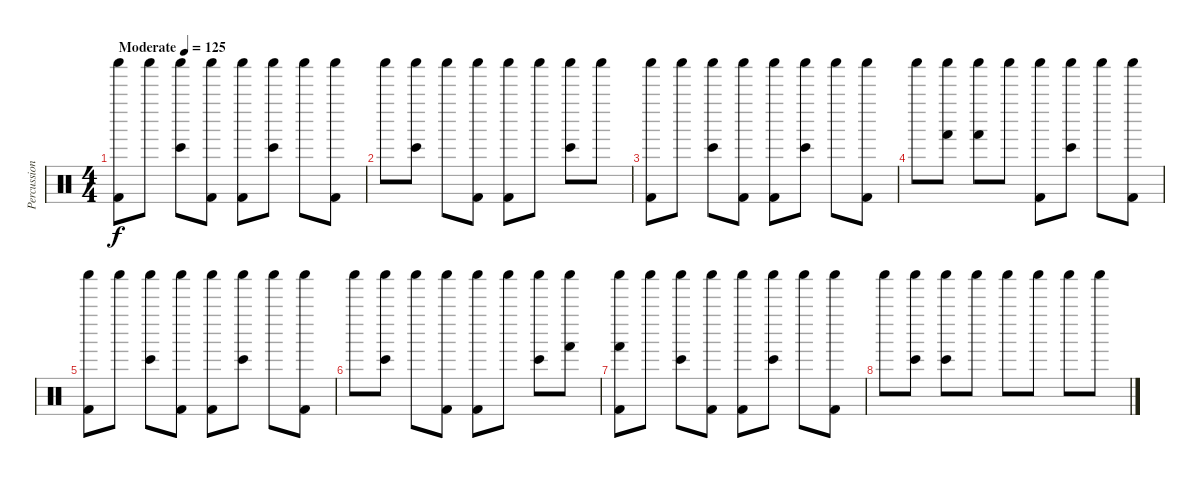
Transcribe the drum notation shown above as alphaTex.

\track ("Percussion" "Percussion") {instrument percussion}
\staff {score}
\articulation defaults
\ts (4 4)
\tempo (125 "Moderate")
\clef neutral
\ks c
("Shaker (hit)" "Kick (hit) 2").8{dy f} "Shaker (hit)".8 ("Shaker (hit)" "Bongo High (hit)").8 ("Shaker (hit)" "Kick (hit) 2").8 ("Shaker (hit)" "Kick (hit) 2").8 ("Shaker (hit)" "Bongo High (hit)").8 "Shaker (hit)".8 ("Shaker (hit)" "Kick (hit) 2").8 |
"Shaker (hit)".8 ("Shaker (hit)" "Bongo High (hit)").8 "Shaker (hit)".8 ("Shaker (hit)" "Kick (hit) 2").8 ("Shaker (hit)" "Kick (hit) 2").8 "Shaker (hit)".8 ("Shaker (hit)" "Bongo High (hit)").8 "Shaker (hit)".8 |
("Shaker (hit)" "Kick (hit) 2").8 "Shaker (hit)".8 ("Shaker (hit)" "Bongo High (hit)").8 ("Shaker (hit)" "Kick (hit) 2").8 ("Shaker (hit)" "Kick (hit) 2").8 ("Shaker (hit)" "Bongo High (hit)").8 "Shaker (hit)".8 ("Shaker (hit)" "Kick (hit) 2").8 |
"Shaker (hit)".8 ("Shaker (hit)" "Hand (hit)").8 ("Shaker (hit)" "Hand (hit)").8 "Shaker (hit)".8 ("Shaker (hit)" "Kick (hit) 2").8 ("Shaker (hit)" "Bongo High (hit)").8 "Shaker (hit)".8 ("Shaker (hit)" "Kick (hit) 2").8 |
("Shaker (hit)" "Kick (hit) 2").8 "Shaker (hit)".8 ("Shaker (hit)" "Bongo High (hit)").8 ("Shaker (hit)" "Kick (hit) 2").8 ("Shaker (hit)" "Kick (hit) 2").8 ("Shaker (hit)" "Bongo High (hit)").8 "Shaker (hit)".8 ("Shaker (hit)" "Kick (hit) 2").8 |
"Shaker (hit)".8 ("Shaker (hit)" "Bongo High (hit)").8 "Shaker (hit)".8 ("Shaker (hit)" "Kick (hit) 2").8 ("Shaker (hit)" "Kick (hit) 2").8 "Shaker (hit)".8 ("Shaker (hit)" "Bongo High (hit)").8 ("Shaker (hit)" "Hand (hit)").8 |
("Shaker (hit)" "Kick (hit) 2" "Hand (hit)").8 "Shaker (hit)".8 ("Shaker (hit)" "Bongo High (hit)").8 ("Shaker (hit)" "Kick (hit) 2").8 ("Shaker (hit)" "Kick (hit) 2").8 ("Shaker (hit)" "Bongo High (hit)").8 "Shaker (hit)".8 ("Shaker (hit)" "Kick (hit) 2").8 |
"Shaker (hit)".8 ("Shaker (hit)" "Bongo High (hit)").8 ("Shaker (hit)" "Bongo High (hit)").8 "Shaker (hit)".8 "Shaker (hit)".8 "Shaker (hit)".8 "Shaker (hit)".8 "Shaker (hit)".8
